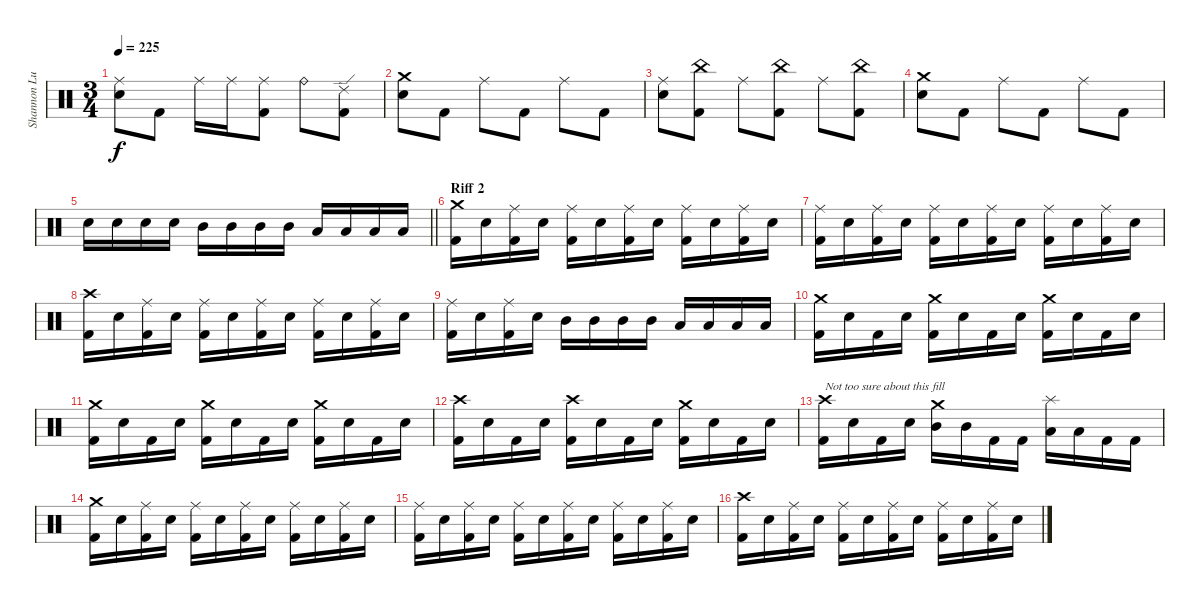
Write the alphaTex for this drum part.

\track ("Shannon Lucas" "Shannon Lu") {instrument percussion}
\staff {score}
\articulation defaults
\ts (3 4)
\tempo 225
\clef neutral
\ks c
("Ride (middle)" "Electric Snare (hit)").8{dy f} "Kick (hit) 2".8 "Ride (middle)".16 "Ride (middle)".16 ("Ride (middle)" "Kick (hit) 2").8 "Ride (bell)".8 ("Ride (edge) 2" "Kick (hit) 2").8 |
("Crash medium (hit)" "Electric Snare (hit)").8 "Kick (hit) 2".8 "Ride (middle)".8 "Kick (hit) 2".8 "Ride (middle)".8 "Kick (hit) 2".8 |
("Ride (middle)" "Electric Snare (hit)").8 ("China (hit)" "Kick (hit) 2").8 "Ride (middle)".8 ("China (hit)" "Kick (hit) 2").8 "Ride (middle)".8 ("China (hit)" "Kick (hit) 2").8 |
("Crash medium (hit)" "Electric Snare (hit)").8 "Kick (hit) 2".8 "Ride (middle)".8 "Kick (hit) 2".8 "Ride (middle)".8 "Kick (hit) 2".8 |
\barLineRight lightlight "Electric Snare (hit)".16 "Electric Snare (hit)".16 "Electric Snare (hit)".16 "Electric Snare (hit)".16 "Mid Tom (hit)".16 "Mid Tom (hit)".16 "Mid Tom (hit)".16 "Mid Tom (hit)".16 "Low Tom (hit)".16 "Low Tom (hit)".16 "Low Tom (hit)".16 "Low Tom (hit)".16
|
\section ("" "Riff 2")
("Crash medium (hit)" "Kick (hit) 2").16 "Electric Snare (hit)".16 ("Ride (middle)" "Kick (hit) 2").16 "Electric Snare (hit)".16 ("Ride (middle)" "Kick (hit) 2").16 "Electric Snare (hit)".16 ("Ride (middle)" "Kick (hit) 2").16 "Electric Snare (hit)".16 ("Ride (middle)" "Kick (hit) 2").16 "Electric Snare (hit)".16 ("Ride (middle)" "Kick (hit) 2").16 "Electric Snare (hit)".16 |
("Ride (middle)" "Kick (hit) 2").16 "Electric Snare (hit)".16 ("Ride (middle)" "Kick (hit) 2").16 "Electric Snare (hit)".16 ("Ride (middle)" "Kick (hit) 2").16 "Electric Snare (hit)".16 ("Ride (middle)" "Kick (hit) 2").16 "Electric Snare (hit)".16 ("Ride (middle)" "Kick (hit) 2").16 "Electric Snare (hit)".16 ("Ride (middle)" "Kick (hit) 2").16 "Electric Snare (hit)".16 |
("Crash high (hit)" "Kick (hit) 2").16 "Electric Snare (hit)".16 ("Ride (middle)" "Kick (hit) 2").16 "Electric Snare (hit)".16 ("Ride (middle)" "Kick (hit) 2").16 "Electric Snare (hit)".16 ("Ride (middle)" "Kick (hit) 2").16 "Electric Snare (hit)".16 ("Ride (middle)" "Kick (hit) 2").16 "Electric Snare (hit)".16 ("Ride (middle)" "Kick (hit) 2").16 "Electric Snare (hit)".16 |
("Ride (middle)" "Kick (hit) 2").16 "Electric Snare (hit)".16 ("Ride (middle)" "Kick (hit) 2").16 "Electric Snare (hit)".16 "Mid Tom (hit)".16 "Mid Tom (hit)".16 "Mid Tom (hit)".16 "Mid Tom (hit)".16 "Low Tom (hit)".16 "Low Tom (hit)".16 "Low Tom (hit)".16 "Low Tom (hit)".16 |
("Crash medium (hit)" "Kick (hit) 2").16 "Electric Snare (hit)".16 "Kick (hit) 2".16 "Electric Snare (hit)".16 ("Crash medium (hit)" "Kick (hit) 2").16 "Electric Snare (hit)".16 "Kick (hit) 2".16 "Electric Snare (hit)".16 ("Crash medium (hit)" "Kick (hit) 2").16 "Electric Snare (hit)".16 "Kick (hit) 2".16 "Electric Snare (hit)".16 |
("Crash medium (hit)" "Kick (hit) 2").16 "Electric Snare (hit)".16 "Kick (hit) 2".16 "Electric Snare (hit)".16 ("Crash medium (hit)" "Kick (hit) 2").16 "Electric Snare (hit)".16 "Kick (hit) 2".16 "Electric Snare (hit)".16 ("Crash medium (hit)" "Kick (hit) 2").16 "Electric Snare (hit)".16 "Kick (hit) 2".16 "Electric Snare (hit)".16 |
("Crash high (hit)" "Kick (hit) 2").16 "Electric Snare (hit)".16 "Kick (hit) 2".16 "Electric Snare (hit)".16 ("Crash high (hit)" "Kick (hit) 2").16 "Electric Snare (hit)".16 "Kick (hit) 2".16 "Electric Snare (hit)".16 ("Crash medium (hit)" "Kick (hit) 2").16 "Electric Snare (hit)".16 "Kick (hit) 2".16 "Electric Snare (hit)".16 |
("Crash high (hit)" "Kick (hit) 2").16{txt "Not too sure about this fill"} "Electric Snare (hit)".16 "Kick (hit) 2".16 "Electric Snare (hit)".16 ("Crash medium (hit)" "Mid Tom (hit)").16 "Mid Tom (hit)".16 "Kick (hit) 2".16 "Kick (hit) 2".16 ("Splash (hit)" "Low Tom (hit)").16 "Low Tom (hit)".16 "Kick (hit) 2".16 "Kick (hit) 2".16 |
("Crash medium (hit)" "Kick (hit) 2").16 "Electric Snare (hit)".16 ("Ride (middle)" "Kick (hit) 2").16 "Electric Snare (hit)".16 ("Ride (middle)" "Kick (hit) 2").16 "Electric Snare (hit)".16 ("Ride (middle)" "Kick (hit) 2").16 "Electric Snare (hit)".16 ("Ride (middle)" "Kick (hit) 2").16 "Electric Snare (hit)".16 ("Ride (middle)" "Kick (hit) 2").16 "Electric Snare (hit)".16 |
("Ride (middle)" "Kick (hit) 2").16 "Electric Snare (hit)".16 ("Ride (middle)" "Kick (hit) 2").16 "Electric Snare (hit)".16 ("Ride (middle)" "Kick (hit) 2").16 "Electric Snare (hit)".16 ("Ride (middle)" "Kick (hit) 2").16 "Electric Snare (hit)".16 ("Ride (middle)" "Kick (hit) 2").16 "Electric Snare (hit)".16 ("Ride (middle)" "Kick (hit) 2").16 "Electric Snare (hit)".16 |
("Crash high (hit)" "Kick (hit) 2").16 "Electric Snare (hit)".16 ("Ride (middle)" "Kick (hit) 2").16 "Electric Snare (hit)".16 ("Ride (middle)" "Kick (hit) 2").16 "Electric Snare (hit)".16 ("Ride (middle)" "Kick (hit) 2").16 "Electric Snare (hit)".16 ("Ride (middle)" "Kick (hit) 2").16 "Electric Snare (hit)".16 ("Ride (middle)" "Kick (hit) 2").16 "Electric Snare (hit)".16
